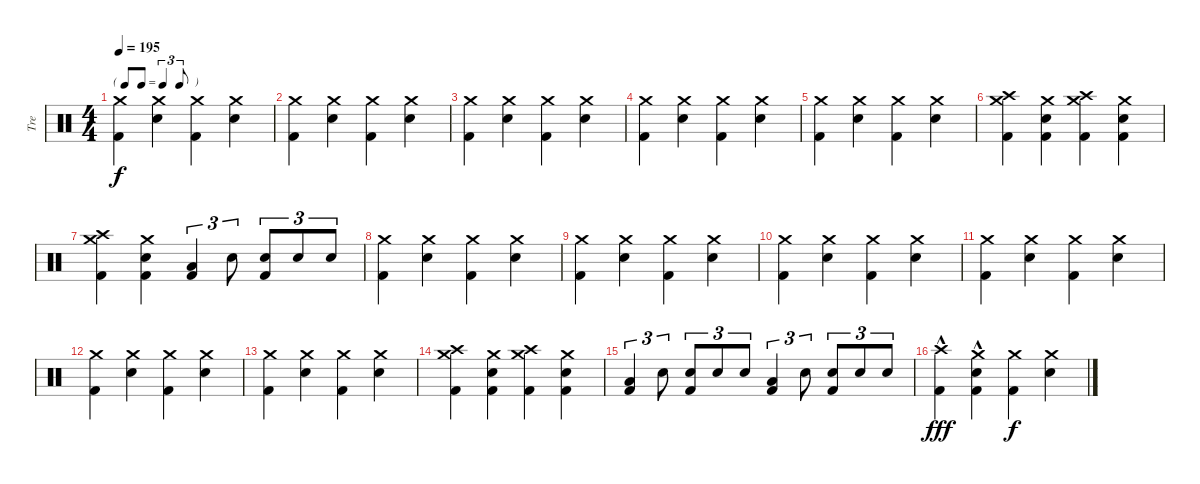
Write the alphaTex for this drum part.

\track ("Tre" "Tre") {instrument percussion}
\staff {score}
\articulation defaults
\ts (4 4)
\tf triplet8th
\tempo 195
\clef neutral
\ks c
("Crash medium (hit)" "Kick (hit) 2").4{dy f} ("Crash medium (hit)" "Snare (hit) 2").4 ("Crash medium (hit)" "Kick (hit) 2").4 ("Crash medium (hit)" "Snare (hit) 2").4 |
("Crash medium (hit)" "Kick (hit) 2").4 ("Crash medium (hit)" "Snare (hit) 2").4 ("Crash medium (hit)" "Kick (hit) 2").4 ("Crash medium (hit)" "Snare (hit) 2").4 |
("Crash medium (hit)" "Kick (hit) 2").4 ("Crash medium (hit)" "Snare (hit) 2").4 ("Crash medium (hit)" "Kick (hit) 2").4 ("Crash medium (hit)" "Snare (hit) 2").4 |
("Crash medium (hit)" "Kick (hit) 2").4 ("Crash medium (hit)" "Snare (hit) 2").4 ("Crash medium (hit)" "Kick (hit) 2").4 ("Crash medium (hit)" "Snare (hit) 2").4 |
("Crash medium (hit)" "Kick (hit) 2").4 ("Crash medium (hit)" "Snare (hit) 2").4 ("Crash medium (hit)" "Kick (hit) 2").4 ("Crash medium (hit)" "Snare (hit) 2").4 |
("Crash medium (hit)" "Crash high (hit)" "Kick (hit) 2").4 ("Crash medium (hit)" "Snare (hit) 2" "Kick (hit) 2").4 ("Crash medium (hit)" "Crash high (hit)" "Kick (hit) 2").4 ("Crash medium (hit)" "Snare (hit) 2" "Kick (hit) 2").4 |
("Crash medium (hit)" "Crash high (hit)" "Kick (hit) 2").4 ("Crash medium (hit)" "Snare (hit) 2" "Kick (hit) 2").4 ("Low Tom (hit)" "Kick (hit) 2").4{tu (3 2)} "Snare (hit) 2".8{tu (3 2)} ("Snare (hit) 2" "Kick (hit) 2").8{tu (3 2)} "Snare (hit) 2".8{tu (3 2)} "Snare (hit) 2".8{tu (3 2)} |
("Crash medium (hit)" "Kick (hit) 2").4 ("Crash medium (hit)" "Snare (hit) 2").4 ("Crash medium (hit)" "Kick (hit) 2").4 ("Crash medium (hit)" "Snare (hit) 2").4 |
("Crash medium (hit)" "Kick (hit) 2").4 ("Crash medium (hit)" "Snare (hit) 2").4 ("Crash medium (hit)" "Kick (hit) 2").4 ("Crash medium (hit)" "Snare (hit) 2").4 |
("Crash medium (hit)" "Kick (hit) 2").4 ("Crash medium (hit)" "Snare (hit) 2").4 ("Crash medium (hit)" "Kick (hit) 2").4 ("Crash medium (hit)" "Snare (hit) 2").4 |
("Crash medium (hit)" "Kick (hit) 2").4 ("Crash medium (hit)" "Snare (hit) 2").4 ("Crash medium (hit)" "Kick (hit) 2").4 ("Crash medium (hit)" "Snare (hit) 2").4 |
("Crash medium (hit)" "Kick (hit) 2").4 ("Crash medium (hit)" "Snare (hit) 2").4 ("Crash medium (hit)" "Kick (hit) 2").4 ("Crash medium (hit)" "Snare (hit) 2").4 |
("Crash medium (hit)" "Kick (hit) 2").4 ("Crash medium (hit)" "Snare (hit) 2").4 ("Crash medium (hit)" "Kick (hit) 2").4 ("Crash medium (hit)" "Snare (hit) 2").4 |
("Crash medium (hit)" "Crash high (hit)" "Kick (hit) 2").4 ("Crash medium (hit)" "Snare (hit) 2" "Kick (hit) 2").4 ("Crash medium (hit)" "Crash high (hit)" "Kick (hit) 2").4 ("Crash medium (hit)" "Snare (hit) 2" "Kick (hit) 2").4 |
("Low Tom (hit)" "Kick (hit) 2").4{tu (3 2)} "Snare (hit) 2".8{tu (3 2)} ("Snare (hit) 2" "Kick (hit) 2").8{tu (3 2)} "Snare (hit) 2".8{tu (3 2)} "Snare (hit) 2".8{tu (3 2)} ("Low Tom (hit)" "Kick (hit) 2").4{tu (3 2)} "Snare (hit) 2".8{tu (3 2)} ("Snare (hit) 2" "Kick (hit) 2").8{tu (3 2)} "Snare (hit) 2".8{tu (3 2)} "Snare (hit) 2".8{tu (3 2)} |
("Crash high (hit)"{hac} "Kick (hit) 2"{hac}).4{dy fff} ("Crash medium (hit)"{hac} "Snare (hit) 2"{hac} "Kick (hit) 2"{hac}).4 ("Crash medium (hit)" "Kick (hit) 2").4{dy f} ("Crash medium (hit)" "Snare (hit) 2").4
